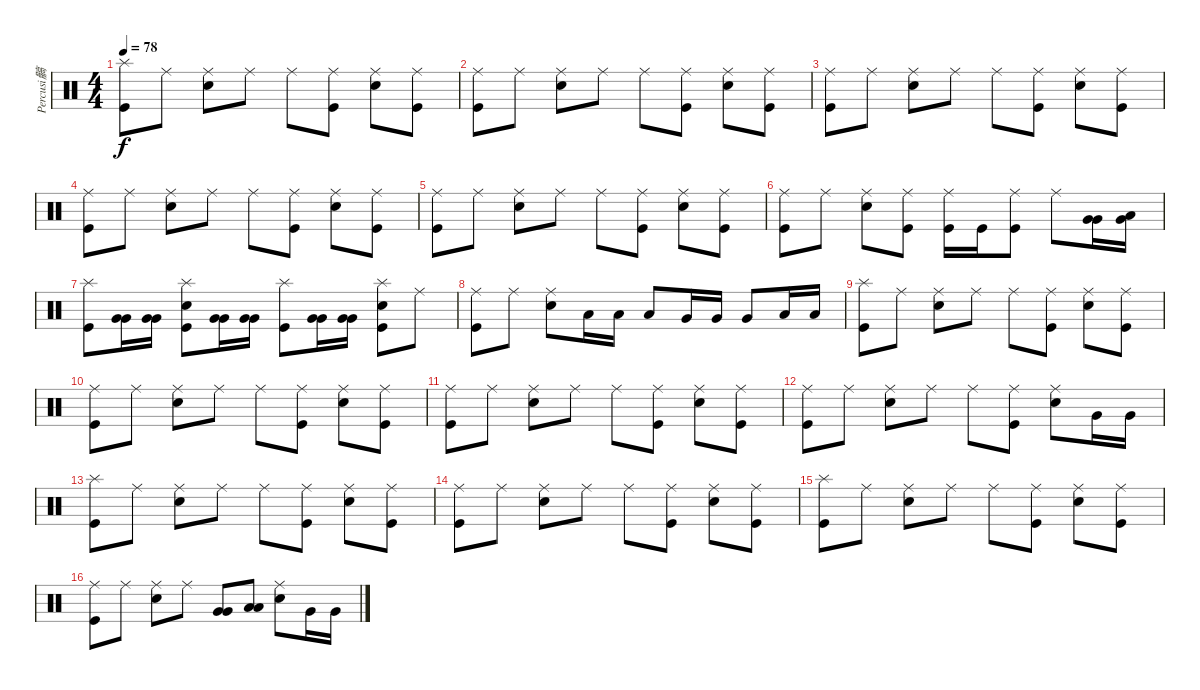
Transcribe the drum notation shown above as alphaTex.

\track ("Percusi髇" "Percusi髇") {instrument percussion}
\staff {score}
\articulation defaults
\ts (4 4)
\tempo 78
\clef neutral
\ks c
("Splash (hit)" "Kick (hit)").8{dy f} "Ride (middle)".8 ("Ride (middle)" "Snare (hit) 2").8 "Ride (middle)".8 "Ride (middle)".8 ("Ride (middle)" "Kick (hit)").8 ("Ride (middle)" "Snare (hit) 2").8 ("Ride (middle)" "Kick (hit)").8 |
("Ride (middle)" "Kick (hit)").8 "Ride (middle)".8 ("Ride (middle)" "Snare (hit) 2").8 "Ride (middle)".8 "Ride (middle)".8 ("Ride (middle)" "Kick (hit)").8 ("Ride (middle)" "Snare (hit) 2").8 ("Ride (middle)" "Kick (hit)").8 |
("Ride (middle)" "Kick (hit)").8 "Ride (middle)".8 ("Ride (middle)" "Snare (hit) 2").8 "Ride (middle)".8 "Ride (middle)".8 ("Ride (middle)" "Kick (hit)").8 ("Ride (middle)" "Snare (hit) 2").8 ("Ride (middle)" "Kick (hit)").8 |
("Ride (middle)" "Kick (hit)").8 "Ride (middle)".8 ("Ride (middle)" "Snare (hit) 2").8 "Ride (middle)".8 "Ride (middle)".8 ("Ride (middle)" "Kick (hit)").8 ("Ride (middle)" "Snare (hit) 2").8 ("Ride (middle)" "Kick (hit)").8 |
("Ride (middle)" "Kick (hit)").8 "Ride (middle)".8 ("Ride (middle)" "Snare (hit) 2").8 "Ride (middle)".8 "Ride (middle)".8 ("Ride (middle)" "Kick (hit)").8 ("Ride (middle)" "Snare (hit) 2").8 ("Ride (middle)" "Kick (hit)").8 |
("Ride (middle)" "Kick (hit)").8 "Ride (middle)".8 ("Ride (middle)" "Snare (hit) 2").8 ("Ride (middle)" "Kick (hit)").8 ("Ride (middle)" "Kick (hit)").16 "Kick (hit)".16 ("Ride (middle)" "Kick (hit)").8 "Ride (middle)".8 ("Very Low Tom (hit)" "Very Low Tom (hit)").16 ("Low Tom (hit)" "Very Low Tom (hit)").16 |
("Splash (hit)" "Kick (hit)").8 ("Very Low Tom (hit)" "Very Low Tom (hit)").16 ("Very Low Tom (hit)" "Very Low Tom (hit)").16 ("Splash (hit)" "Snare (hit) 2" "Kick (hit)").8 ("Very Low Tom (hit)" "Very Low Tom (hit)").16 ("Very Low Tom (hit)" "Very Low Tom (hit)").16 ("Splash (hit)" "Kick (hit)").8 ("Very Low Tom (hit)" "Very Low Tom (hit)").16 ("Very Low Tom (hit)" "Very Low Tom (hit)").16 ("Splash (hit)" "Snare (hit) 2" "Kick (hit)").8 "Ride (middle)".8 |
("Ride (middle)" "Kick (hit)").8 "Ride (middle)".8 ("Ride (middle)" "Snare (hit) 2").8 "Low Tom (hit)".16 "Low Tom (hit)".16 "Low Tom (hit)".8 "Very Low Tom (hit)".16 "Very Low Tom (hit)".16 "Very Low Tom (hit)".8 "Low Floor Tom (hit)".16 "Low Floor Tom (hit)".16 |
("Splash (hit)" "Kick (hit)").8 "Ride (middle)".8 ("Ride (middle)" "Snare (hit) 2").8 "Ride (middle)".8 "Ride (middle)".8 ("Ride (middle)" "Kick (hit)").8 ("Ride (middle)" "Snare (hit) 2").8 ("Ride (middle)" "Kick (hit)").8 |
("Ride (middle)" "Kick (hit)").8 "Ride (middle)".8 ("Ride (middle)" "Snare (hit) 2").8 "Ride (middle)".8 "Ride (middle)".8 ("Ride (middle)" "Kick (hit)").8 ("Ride (middle)" "Snare (hit) 2").8 ("Ride (middle)" "Kick (hit)").8 |
("Ride (middle)" "Kick (hit)").8 "Ride (middle)".8 ("Ride (middle)" "Snare (hit) 2").8 "Ride (middle)".8 "Ride (middle)".8 ("Ride (middle)" "Kick (hit)").8 ("Ride (middle)" "Snare (hit) 2").8 ("Ride (middle)" "Kick (hit)").8 |
("Ride (middle)" "Kick (hit)").8 "Ride (middle)".8 ("Ride (middle)" "Snare (hit) 2").8 "Ride (middle)".8 "Ride (middle)".8 ("Ride (middle)" "Kick (hit)").8 ("Ride (middle)" "Snare (hit) 2").8 "Very Low Tom (hit)".16 "Very Low Tom (hit)".16 |
("Splash (hit)" "Kick (hit)").8 "Ride (middle)".8 ("Ride (middle)" "Snare (hit) 2").8 "Ride (middle)".8 "Ride (middle)".8 ("Ride (middle)" "Kick (hit)").8 ("Ride (middle)" "Snare (hit) 2").8 ("Ride (middle)" "Kick (hit)").8 |
("Ride (middle)" "Kick (hit)").8 "Ride (middle)".8 ("Ride (middle)" "Snare (hit) 2").8 "Ride (middle)".8 "Ride (middle)".8 ("Ride (middle)" "Kick (hit)").8 ("Ride (middle)" "Snare (hit) 2").8 ("Ride (middle)" "Kick (hit)").8 |
("Splash (hit)" "Kick (hit)").8 "Ride (middle)".8 ("Ride (middle)" "Snare (hit) 2").8 "Ride (middle)".8 "Ride (middle)".8 ("Ride (middle)" "Kick (hit)").8 ("Ride (middle)" "Snare (hit) 2").8 ("Ride (middle)" "Kick (hit)").8 |
("Ride (middle)" "Kick (hit)").8 "Ride (middle)".8 ("Ride (middle)" "Snare (hit) 2").8 "Ride (middle)".8 ("Very Low Tom (hit)" "Very Low Tom (hit)").8 ("Low Tom (hit)" "Low Tom (hit)").8 ("Ride (middle)" "Snare (hit) 2").8 "Very Low Tom (hit)".16 "Very Low Tom (hit)".16
